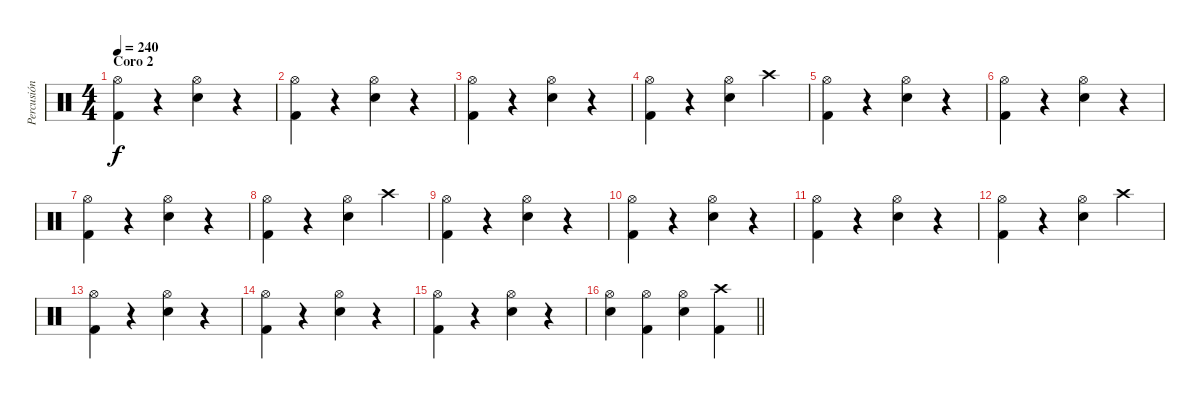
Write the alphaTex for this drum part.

\track ("Percusión" "Percusión") {instrument percussion}
\staff {score}
\articulation defaults
\ts (4 4)
\section ("" "Coro 2")
\tempo 240
\clef neutral
\ks c
("Hi-Hat (open)" "Kick (hit) 2").4{dy f} r.4 ("Hi-Hat (open)" "Electric Snare (hit)").4 r.4 |
("Hi-Hat (open)" "Kick (hit) 2").4 r.4 ("Hi-Hat (open)" "Electric Snare (hit)").4 r.4 |
("Hi-Hat (open)" "Kick (hit) 2").4 r.4 ("Hi-Hat (open)" "Electric Snare (hit)").4 r.4 |
("Hi-Hat (open)" "Kick (hit) 2").4 r.4 ("Hi-Hat (open)" "Electric Snare (hit)").4 "Crash high (hit)".4 |
("Hi-Hat (open)" "Kick (hit) 2").4 r.4 ("Hi-Hat (open)" "Electric Snare (hit)").4 r.4 |
("Hi-Hat (open)" "Kick (hit) 2").4 r.4 ("Hi-Hat (open)" "Electric Snare (hit)").4 r.4 |
("Hi-Hat (open)" "Kick (hit) 2").4 r.4 ("Hi-Hat (open)" "Electric Snare (hit)").4 r.4 |
("Hi-Hat (open)" "Kick (hit) 2").4 r.4 ("Hi-Hat (open)" "Electric Snare (hit)").4 "Crash high (hit)".4 |
("Hi-Hat (open)" "Kick (hit) 2").4 r.4 ("Hi-Hat (open)" "Electric Snare (hit)").4 r.4 |
("Hi-Hat (open)" "Kick (hit) 2").4 r.4 ("Hi-Hat (open)" "Electric Snare (hit)").4 r.4 |
("Hi-Hat (open)" "Kick (hit) 2").4 r.4 ("Hi-Hat (open)" "Electric Snare (hit)").4 r.4 |
("Hi-Hat (open)" "Kick (hit) 2").4 r.4 ("Hi-Hat (open)" "Electric Snare (hit)").4 "Crash high (hit)".4 |
("Hi-Hat (open)" "Kick (hit) 2").4 r.4 ("Hi-Hat (open)" "Electric Snare (hit)").4 r.4 |
("Hi-Hat (open)" "Kick (hit) 2").4 r.4 ("Hi-Hat (open)" "Electric Snare (hit)").4 r.4 |
("Hi-Hat (open)" "Kick (hit) 2").4 r.4 ("Hi-Hat (open)" "Electric Snare (hit)").4 r.4 |
\barLineRight lightlight
("Hi-Hat (open)" "Electric Snare (hit)").4 ("Hi-Hat (open)" "Kick (hit) 2").4 ("Hi-Hat (open)" "Electric Snare (hit)").4 ("Crash high (hit)" "Kick (hit) 2").4
